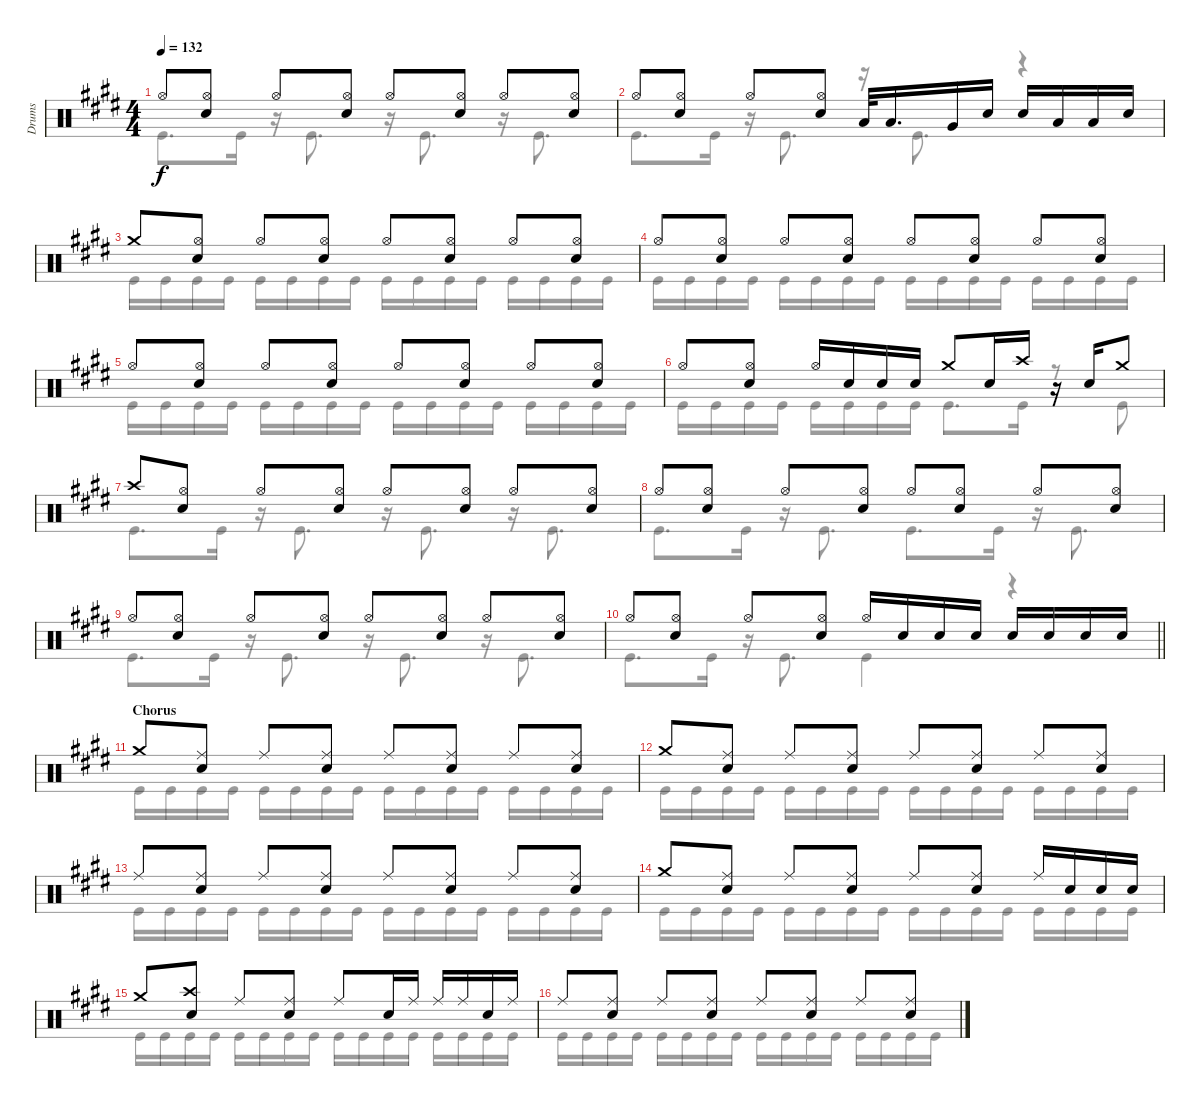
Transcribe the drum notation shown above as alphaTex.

\track ("Drums" "Drums") {instrument percussion}
\staff {score}
\articulation defaults
\voice
\ts (4 4)
\tempo 132
\clef neutral
\ks c#minor "Hi-Hat (open)".8{dy f}
("Hi-Hat (open)" "Electric Snare (hit)").8 "Hi-Hat (open)".8 ("Hi-Hat (open)" "Electric Snare (hit)").8 "Hi-Hat (open)".8 ("Hi-Hat (open)" "Electric Snare (hit)").8 "Hi-Hat (open)".8 ("Hi-Hat (open)" "Electric Snare (hit)").8 |
"Hi-Hat (open)".8 ("Hi-Hat (open)" "Electric Snare (hit)").8 "Hi-Hat (open)".8 ("Hi-Hat (open)" "Electric Snare (hit)").8 "Low Tom (hit)".32 "Low Tom (hit)".16{d} "Very Low Tom (hit)".16 "Electric Snare (hit)".16 "Electric Snare (hit)".16 "Low Tom (hit)".16 "Low Tom (hit)".16 "Electric Snare (hit)".16 |
"Crash medium (hit)".8 ("Hi-Hat (open)" "Electric Snare (hit)").8 "Hi-Hat (open)".8 ("Hi-Hat (open)" "Electric Snare (hit)").8 "Hi-Hat (open)".8 ("Hi-Hat (open)" "Electric Snare (hit)").8 "Hi-Hat (open)".8 ("Hi-Hat (open)" "Electric Snare (hit)").8 |
"Hi-Hat (open)".8 ("Hi-Hat (open)" "Electric Snare (hit)").8 "Hi-Hat (open)".8 ("Hi-Hat (open)" "Electric Snare (hit)").8 "Hi-Hat (open)".8 ("Hi-Hat (open)" "Electric Snare (hit)").8 "Hi-Hat (open)".8 ("Hi-Hat (open)" "Electric Snare (hit)").8 |
"Hi-Hat (open)".8 ("Hi-Hat (open)" "Electric Snare (hit)").8 "Hi-Hat (open)".8 ("Hi-Hat (open)" "Electric Snare (hit)").8 "Hi-Hat (open)".8 ("Hi-Hat (open)" "Electric Snare (hit)").8 "Hi-Hat (open)".8 ("Hi-Hat (open)" "Electric Snare (hit)").8 |
"Hi-Hat (open)".8 ("Hi-Hat (open)" "Electric Snare (hit)").8 "Hi-Hat (open)".16 "Electric Snare (hit)".16 "Electric Snare (hit)".16 "Electric Snare (hit)".16 "Crash medium (hit)".8 "Electric Snare (hit)".16 "Crash high (hit)".16 r.16 "Electric Snare (hit)".16 "Crash medium (hit)".8 |
"Crash high (hit)".8 ("Hi-Hat (open)" "Electric Snare (hit)").8 "Hi-Hat (open)".8 ("Hi-Hat (open)" "Electric Snare (hit)").8 "Hi-Hat (open)".8 ("Hi-Hat (open)" "Electric Snare (hit)").8 "Hi-Hat (open)".8 ("Hi-Hat (open)" "Electric Snare (hit)").8 |
"Hi-Hat (open)".8 ("Hi-Hat (open)" "Electric Snare (hit)").8 "Hi-Hat (open)".8 ("Hi-Hat (open)" "Electric Snare (hit)").8 "Hi-Hat (open)".8 ("Hi-Hat (open)" "Electric Snare (hit)").8 "Hi-Hat (open)".8 ("Hi-Hat (open)" "Electric Snare (hit)").8 |
"Hi-Hat (open)".8 ("Hi-Hat (open)" "Electric Snare (hit)").8 "Hi-Hat (open)".8 ("Hi-Hat (open)" "Electric Snare (hit)").8 "Hi-Hat (open)".8 ("Hi-Hat (open)" "Electric Snare (hit)").8 "Hi-Hat (open)".8 ("Hi-Hat (open)" "Electric Snare (hit)").8 |
\barLineRight lightlight "Hi-Hat (open)".8
("Hi-Hat (open)" "Electric Snare (hit)").8 "Hi-Hat (open)".8 ("Hi-Hat (open)" "Electric Snare (hit)").8 "Hi-Hat (open)".16 "Electric Snare (hit)".16 "Electric Snare (hit)".16 "Electric Snare (hit)".16 "Electric Snare (hit)".16 "Electric Snare (hit)".16 "Electric Snare (hit)".16 "Electric Snare (hit)".16 |
\section ("" "Chorus")
"Crash medium (hit)".8 ("Ride (middle)" "Electric Snare (hit)").8 "Ride (middle)".8 ("Ride (middle)" "Electric Snare (hit)").8 "Ride (middle)".8 ("Ride (middle)" "Electric Snare (hit)").8 "Ride (middle)".8 ("Ride (middle)" "Electric Snare (hit)").8 |
"Crash medium (hit)".8 ("Ride (middle)" "Electric Snare (hit)").8 "Ride (middle)".8 ("Ride (middle)" "Electric Snare (hit)").8 "Ride (middle)".8 ("Ride (middle)" "Electric Snare (hit)").8 "Ride (middle)".8 ("Ride (middle)" "Electric Snare (hit)").8 |
"Ride (middle)".8 ("Ride (middle)" "Electric Snare (hit)").8 "Ride (middle)".8 ("Ride (middle)" "Electric Snare (hit)").8 "Ride (middle)".8 ("Ride (middle)" "Electric Snare (hit)").8 "Ride (middle)".8 ("Ride (middle)" "Electric Snare (hit)").8 |
"Crash medium (hit)".8 ("Ride (middle)" "Electric Snare (hit)").8 "Ride (middle)".8 ("Ride (middle)" "Electric Snare (hit)").8 "Ride (middle)".8 ("Ride (middle)" "Electric Snare (hit)").8 "Ride (middle)".16 "Electric Snare (hit)".16 "Electric Snare (hit)".16 "Electric Snare (hit)".16 |
"Crash medium (hit)".8 ("Crash high (hit)" "Electric Snare (hit)").8 "Ride (middle)".8 ("Ride (middle)" "Electric Snare (hit)").8 "Ride (middle)".8 "Electric Snare (hit)".16 "Ride (middle)".16 "Ride (middle)".16 "Ride (middle)".16 "Electric Snare (hit)".16 "Ride (middle)".16 |
"Ride (middle)".8 ("Ride (middle)" "Electric Snare (hit)").8 "Ride (middle)".8 ("Ride (middle)" "Electric Snare (hit)").8 "Ride (middle)".8 ("Ride (middle)" "Electric Snare (hit)").8 "Ride (middle)".8 ("Ride (middle)" "Electric Snare (hit)").8
\voice
\clef neutral
\ottava regular
\simile none
\ks c#minor "Kick (hit)".8{d dy f} "Kick (hit)".16
r.16 "Kick (hit)".8{d} r.16 "Kick (hit)".8{d} r.16 "Kick (hit)".8{d} |
"Kick (hit)".8{d} "Kick (hit)".16 r.16 "Kick (hit)".8{d} r.16 "Kick (hit)".8{d} r.4 |
"Kick (hit)".16 "Kick (hit)".16 "Kick (hit)".16 "Kick (hit)".16 "Kick (hit)".16 "Kick (hit)".16 "Kick (hit)".16 "Kick (hit)".16 "Kick (hit)".16 "Kick (hit)".16 "Kick (hit)".16 "Kick (hit)".16 "Kick (hit)".16 "Kick (hit)".16 "Kick (hit)".16 "Kick (hit)".16 |
"Kick (hit)".16 "Kick (hit)".16 "Kick (hit)".16 "Kick (hit)".16 "Kick (hit)".16 "Kick (hit)".16 "Kick (hit)".16 "Kick (hit)".16 "Kick (hit)".16 "Kick (hit)".16 "Kick (hit)".16 "Kick (hit)".16 "Kick (hit)".16 "Kick (hit)".16 "Kick (hit)".16 "Kick (hit)".16 |
"Kick (hit)".16 "Kick (hit)".16 "Kick (hit)".16 "Kick (hit)".16 "Kick (hit)".16 "Kick (hit)".16 "Kick (hit)".16 "Kick (hit)".16 "Kick (hit)".16 "Kick (hit)".16 "Kick (hit)".16 "Kick (hit)".16 "Kick (hit)".16 "Kick (hit)".16 "Kick (hit)".16 "Kick (hit)".16 |
"Kick (hit)".16 "Kick (hit)".16 "Kick (hit)".16 "Kick (hit)".16 "Kick (hit)".16 "Kick (hit)".16 "Kick (hit)".16 "Kick (hit)".16 "Kick (hit)".8{d} "Kick (hit)".16 r.8 "Kick (hit)".8 |
"Kick (hit)".8{d} "Kick (hit)".16 r.16 "Kick (hit)".8{d} r.16 "Kick (hit)".8{d} r.16 "Kick (hit)".8{d} |
"Kick (hit)".8{d} "Kick (hit)".16 r.16 "Kick (hit)".8{d} "Kick (hit)".8{d} "Kick (hit)".16 r.16 "Kick (hit)".8{d} |
"Kick (hit)".8{d} "Kick (hit)".16 r.16 "Kick (hit)".8{d} r.16 "Kick (hit)".8{d} r.16 "Kick (hit)".8{d} |
\barLineRight lightlight "Kick (hit)".8{d} "Kick (hit)".16
r.16 "Kick (hit)".8{d} "Kick (hit)".4 r.4 |
"Kick (hit)".16 "Kick (hit)".16 "Kick (hit)".16 "Kick (hit)".16 "Kick (hit)".16 "Kick (hit)".16 "Kick (hit)".16 "Kick (hit)".16 "Kick (hit)".16 "Kick (hit)".16 "Kick (hit)".16 "Kick (hit)".16 "Kick (hit)".16 "Kick (hit)".16 "Kick (hit)".16 "Kick (hit)".16 |
"Kick (hit)".16 "Kick (hit)".16 "Kick (hit)".16 "Kick (hit)".16 "Kick (hit)".16 "Kick (hit)".16 "Kick (hit)".16 "Kick (hit)".16 "Kick (hit)".16 "Kick (hit)".16 "Kick (hit)".16 "Kick (hit)".16 "Kick (hit)".16 "Kick (hit)".16 "Kick (hit)".16 "Kick (hit)".16 |
"Kick (hit)".16 "Kick (hit)".16 "Kick (hit)".16 "Kick (hit)".16 "Kick (hit)".16 "Kick (hit)".16 "Kick (hit)".16 "Kick (hit)".16 "Kick (hit)".16 "Kick (hit)".16 "Kick (hit)".16 "Kick (hit)".16 "Kick (hit)".16 "Kick (hit)".16 "Kick (hit)".16 "Kick (hit)".16 |
"Kick (hit)".16 "Kick (hit)".16 "Kick (hit)".16 "Kick (hit)".16 "Kick (hit)".16 "Kick (hit)".16 "Kick (hit)".16 "Kick (hit)".16 "Kick (hit)".16 "Kick (hit)".16 "Kick (hit)".16 "Kick (hit)".16 "Kick (hit)".16 "Kick (hit)".16 "Kick (hit)".16 "Kick (hit)".16 |
"Kick (hit)".16 "Kick (hit)".16 "Kick (hit)".16 "Kick (hit)".16 "Kick (hit)".16 "Kick (hit)".16 "Kick (hit)".16 "Kick (hit)".16 "Kick (hit)".16 "Kick (hit)".16 "Kick (hit)".16 "Kick (hit)".16 "Kick (hit)".16 "Kick (hit)".16 "Kick (hit)".16 "Kick (hit)".16 |
"Kick (hit)".16 "Kick (hit)".16 "Kick (hit)".16 "Kick (hit)".16 "Kick (hit)".16 "Kick (hit)".16 "Kick (hit)".16 "Kick (hit)".16 "Kick (hit)".16 "Kick (hit)".16 "Kick (hit)".16 "Kick (hit)".16 "Kick (hit)".16 "Kick (hit)".16 "Kick (hit)".16 "Kick (hit)".16
